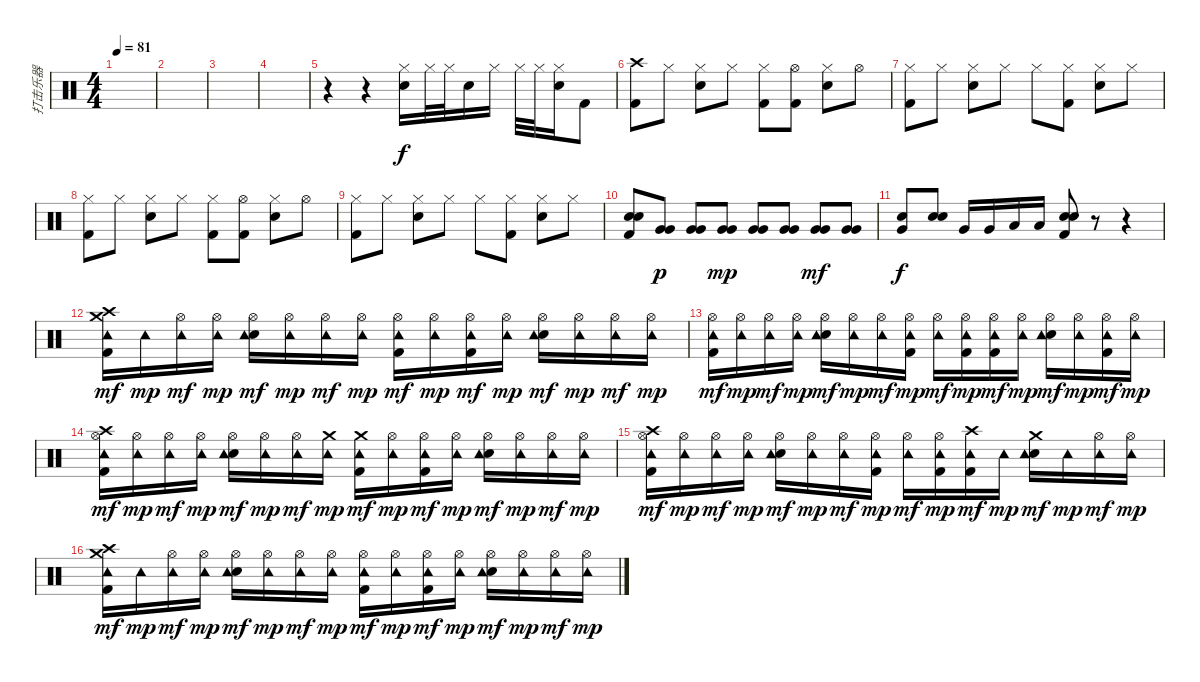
\track ("打击乐器" "打击乐器") {instrument percussion}
\staff {score}
\articulation defaults
\ts (4 4)
\tempo 81
\clef neutral
\ks c
|
|
|
|
r.4 r.4 ("Electric Snare (hit)" "Hi-Hat (closed)").16 "Hi-Hat (closed)".32 "Hi-Hat (closed)".32 "Electric Snare (hit)".16 "Hi-Hat (closed)".16 "Hi-Hat (closed)".32 "Hi-Hat (closed)".32 ("Electric Snare (hit)" "Hi-Hat (closed)").16 "Kick (hit) 2".8 |
("Crash high (hit)" "Kick (hit) 2").8 "Hi-Hat (closed)".8 ("Electric Snare (hit)" "Hi-Hat (closed)").8 "Hi-Hat (closed)".8 ("Hi-Hat (closed)" "Kick (hit) 2").8 ("Hi-Hat (open)" "Kick (hit) 2").8 ("Electric Snare (hit)" "Hi-Hat (closed)").8 "Hi-Hat (open)".8 |
("Hi-Hat (closed)" "Kick (hit) 2").8 "Hi-Hat (closed)".8 ("Electric Snare (hit)" "Hi-Hat (closed)").8 "Hi-Hat (closed)".8 "Hi-Hat (closed)".8 ("Hi-Hat (closed)" "Kick (hit) 2").8 ("Electric Snare (hit)" "Hi-Hat (closed)").8 "Hi-Hat (closed)".8 |
("Hi-Hat (closed)" "Kick (hit) 2").8 "Hi-Hat (closed)".8 ("Electric Snare (hit)" "Hi-Hat (closed)").8 "Hi-Hat (closed)".8 ("Hi-Hat (closed)" "Kick (hit) 2").8 ("Hi-Hat (open)" "Kick (hit) 2").8 ("Electric Snare (hit)" "Hi-Hat (closed)").8 "Hi-Hat (open)".8 |
("Hi-Hat (closed)" "Kick (hit) 2").8 "Hi-Hat (closed)".8 ("Electric Snare (hit)" "Hi-Hat (closed)").8 "Hi-Hat (closed)".8 "Hi-Hat (closed)".8 ("Hi-Hat (closed)" "Kick (hit) 2").8 ("Electric Snare (hit)" "Hi-Hat (closed)").8 "Hi-Hat (closed)".8 |
("Electric Snare (hit)" "Electric Snare (hit)" "Kick (hit) 2").8 ("Very Low Tom (hit)" "Very Low Tom (hit)").8{dy p} ("Very Low Tom (hit)" "Very Low Tom (hit)").8 ("Very Low Tom (hit)" "Very Low Tom (hit)").8{dy mp} ("Very Low Tom (hit)" "Very Low Tom (hit)").8 ("Very Low Tom (hit)" "Very Low Tom (hit)").8 ("Very Low Tom (hit)" "Very Low Tom (hit)").8{dy mf} ("Very Low Tom (hit)" "Very Low Tom (hit)").8 |
("Very Low Tom (hit)" "Electric Snare (hit)").8{dy f} ("Electric Snare (hit)" "Electric Snare (hit)").8{bd 120} "Very Low Tom (hit)".16 "Very Low Tom (hit)".16 "Low Floor Tom (hit)".16 "Low Floor Tom (hit)".16 ("Electric Snare (hit)" "Electric Snare (hit)" "Kick (hit) 2").8 r.8 r.4 |
("Crash high (hit)" "Crash medium (hit)" "Tambourine (hit)" "Kick (hit) 2").16{dy mf} "Tambourine (hit)".16{dy mp} ("Hi-Hat (open)" "Tambourine (hit)").16{dy mf} ("Hi-Hat (open)" "Tambourine (hit)").16{dy mp} ("Electric Snare (hit)" "Hi-Hat (open)" "Tambourine (hit)").16{dy mf} ("Hi-Hat (open)" "Tambourine (hit)").16{dy mp} ("Hi-Hat (open)" "Tambourine (hit)").16{dy mf} ("Hi-Hat (open)" "Tambourine (hit)").16{dy mp} ("Hi-Hat (open)" "Tambourine (hit)" "Kick (hit) 2").16{dy mf} ("Hi-Hat (open)" "Tambourine (hit)").16{dy mp} ("Hi-Hat (open)" "Tambourine (hit)" "Kick (hit) 2").16{dy mf} ("Hi-Hat (open)" "Tambourine (hit)").16{dy mp} ("Electric Snare (hit)" "Hi-Hat (open)" "Tambourine (hit)").16{dy mf} ("Hi-Hat (open)" "Tambourine (hit)").16{dy mp} ("Hi-Hat (open)" "Tambourine (hit)").16{dy mf} ("Hi-Hat (open)" "Tambourine (hit)").16{dy mp} |
("Hi-Hat (open)" "Tambourine (hit)" "Kick (hit) 2").16{dy mf} ("Hi-Hat (open)" "Tambourine (hit)").16{dy mp} ("Hi-Hat (open)" "Tambourine (hit)").16{dy mf} ("Hi-Hat (open)" "Tambourine (hit)").16{dy mp} ("Electric Snare (hit)" "Hi-Hat (open)" "Tambourine (hit)").16{dy mf} ("Hi-Hat (open)" "Tambourine (hit)").16{dy mp} ("Hi-Hat (open)" "Tambourine (hit)").16{dy mf} ("Hi-Hat (open)" "Tambourine (hit)" "Kick (hit) 2").16{dy mp} ("Hi-Hat (open)" "Tambourine (hit)").16{dy mf} ("Hi-Hat (open)" "Tambourine (hit)" "Kick (hit) 2").16{dy mp} ("Hi-Hat (open)" "Tambourine (hit)" "Kick (hit) 2").16{dy mf} ("Hi-Hat (open)" "Tambourine (hit)").16{dy mp} ("Electric Snare (hit)" "Hi-Hat (open)" "Tambourine (hit)").16{dy mf} ("Hi-Hat (open)" "Tambourine (hit)").16{dy mp} ("Hi-Hat (open)" "Tambourine (hit)" "Kick (hit) 2").16{dy mf} ("Hi-Hat (open)" "Tambourine (hit)").16{dy mp} |
("Crash high (hit)" "Hi-Hat (open)" "Tambourine (hit)" "Kick (hit) 2").16{dy mf} ("Hi-Hat (open)" "Tambourine (hit)").16{dy mp} ("Hi-Hat (open)" "Tambourine (hit)").16{dy mf} ("Hi-Hat (open)" "Tambourine (hit)").16{dy mp} ("Electric Snare (hit)" "Hi-Hat (open)" "Tambourine (hit)").16{dy mf} ("Hi-Hat (open)" "Tambourine (hit)").16{dy mp} ("Hi-Hat (open)" "Tambourine (hit)").16{dy mf} ("Crash medium (hit)" "Tambourine (hit)").16{dy mp} ("Crash medium (hit)" "Tambourine (hit)" "Kick (hit) 2").16{dy mf} ("Hi-Hat (open)" "Tambourine (hit)").16{dy mp} ("Hi-Hat (open)" "Tambourine (hit)" "Kick (hit) 2").16{dy mf} ("Hi-Hat (open)" "Tambourine (hit)").16{dy mp} ("Electric Snare (hit)" "Hi-Hat (open)" "Tambourine (hit)").16{dy mf} ("Hi-Hat (open)" "Tambourine (hit)").16{dy mp} ("Hi-Hat (open)" "Tambourine (hit)").16{dy mf} ("Hi-Hat (open)" "Tambourine (hit)").16{dy mp} |
("Crash high (hit)" "Hi-Hat (open)" "Tambourine (hit)" "Kick (hit) 2").16{dy mf} ("Hi-Hat (open)" "Tambourine (hit)").16{dy mp} ("Hi-Hat (open)" "Tambourine (hit)").16{dy mf} ("Hi-Hat (open)" "Tambourine (hit)").16{dy mp} ("Electric Snare (hit)" "Hi-Hat (open)" "Tambourine (hit)").16{dy mf} ("Hi-Hat (open)" "Tambourine (hit)").16{dy mp} ("Hi-Hat (open)" "Tambourine (hit)").16{dy mf} ("Hi-Hat (open)" "Tambourine (hit)" "Kick (hit) 2").16{dy mp} ("Hi-Hat (open)" "Tambourine (hit)").16{dy mf} ("Hi-Hat (open)" "Tambourine (hit)" "Kick (hit) 2").16{dy mp} ("Crash high (hit)" "Tambourine (hit)" "Kick (hit) 2").16{dy mf} "Tambourine (hit)".16{dy mp} ("Electric Snare (hit)" "Crash medium (hit)" "Tambourine (hit)").16{dy mf} "Tambourine (hit)".16{dy mp} ("Hi-Hat (open)" "Tambourine (hit)").16{dy mf} ("Hi-Hat (open)" "Tambourine (hit)").16{dy mp} |
("Crash high (hit)" "Crash medium (hit)" "Tambourine (hit)" "Kick (hit) 2").16{dy mf} "Tambourine (hit)".16{dy mp} ("Hi-Hat (open)" "Tambourine (hit)").16{dy mf} ("Hi-Hat (open)" "Tambourine (hit)").16{dy mp} ("Electric Snare (hit)" "Hi-Hat (open)" "Tambourine (hit)").16{dy mf} ("Hi-Hat (open)" "Tambourine (hit)").16{dy mp} ("Hi-Hat (open)" "Tambourine (hit)").16{dy mf} ("Hi-Hat (open)" "Tambourine (hit)").16{dy mp} ("Hi-Hat (open)" "Tambourine (hit)" "Kick (hit) 2").16{dy mf} ("Hi-Hat (open)" "Tambourine (hit)").16{dy mp} ("Hi-Hat (open)" "Tambourine (hit)" "Kick (hit) 2").16{dy mf} ("Hi-Hat (open)" "Tambourine (hit)").16{dy mp} ("Electric Snare (hit)" "Hi-Hat (open)" "Tambourine (hit)").16{dy mf} ("Hi-Hat (open)" "Tambourine (hit)").16{dy mp} ("Hi-Hat (open)" "Tambourine (hit)").16{dy mf} ("Hi-Hat (open)" "Tambourine (hit)").16{dy mp}
